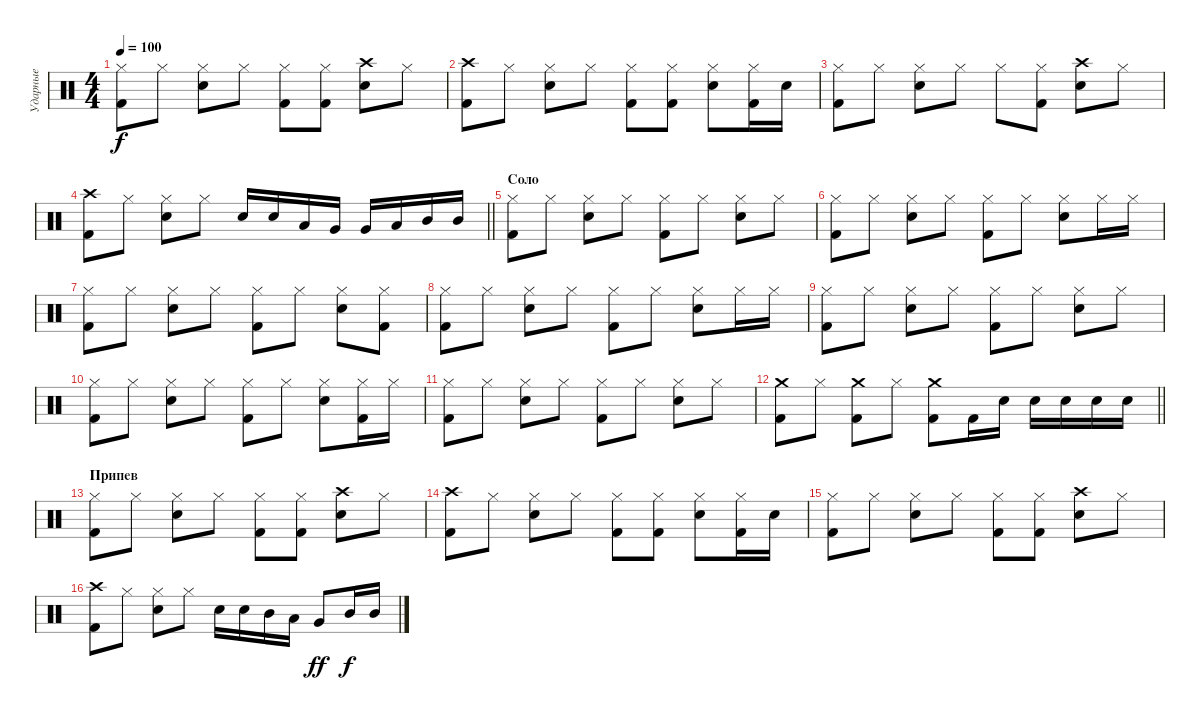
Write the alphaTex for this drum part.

\track ("Ударные" "Ударные") {instrument percussion}
\staff {score}
\articulation defaults
\ts (4 4)
\tempo 100
\clef neutral
\ks c
("Hi-Hat (closed)" "Kick (hit) 2").8{dy f} "Hi-Hat (closed)".8 ("Hi-Hat (closed)" "Electric Snare (hit)").8 "Hi-Hat (closed)".8 ("Hi-Hat (closed)" "Kick (hit) 2").8 ("Hi-Hat (closed)" "Kick (hit) 2").8 ("Crash high (hit)" "Electric Snare (hit)").8 "Hi-Hat (closed)".8 |
("Crash high (hit)" "Kick (hit) 2").8 "Hi-Hat (closed)".8 ("Hi-Hat (closed)" "Electric Snare (hit)").8 "Hi-Hat (closed)".8 ("Hi-Hat (closed)" "Kick (hit) 2").8 ("Hi-Hat (closed)" "Kick (hit) 2").8 ("Hi-Hat (closed)" "Electric Snare (hit)").8 ("Hi-Hat (closed)" "Kick (hit) 2").16 "Electric Snare (hit)".16 |
("Hi-Hat (closed)" "Kick (hit) 2").8 "Hi-Hat (closed)".8 ("Hi-Hat (closed)" "Electric Snare (hit)").8 "Hi-Hat (closed)".8 "Hi-Hat (closed)".8 ("Hi-Hat (closed)" "Kick (hit) 2").8 ("Crash high (hit)" "Electric Snare (hit)").8 "Hi-Hat (closed)".8 |
\barLineRight lightlight
("Crash high (hit)" "Kick (hit) 2").8 "Hi-Hat (closed)".8 ("Hi-Hat (closed)" "Electric Snare (hit)").8 "Hi-Hat (closed)".8 "Electric Snare (hit)".16 "Electric Snare (hit)".16 "Low Floor Tom (hit)".16 "Very Low Tom (hit)".16 "Very Low Tom (hit)".16 "Low Tom (hit)".16 "Mid Tom (hit)".16 "Mid Tom (hit)".16 |
\section ("" "Соло")
("Hi-Hat (closed)" "Kick (hit) 2").8 "Hi-Hat (closed)".8 ("Hi-Hat (closed)" "Electric Snare (hit)").8 "Hi-Hat (closed)".8 ("Hi-Hat (closed)" "Kick (hit) 2").8 "Hi-Hat (closed)".8 ("Hi-Hat (closed)" "Electric Snare (hit)").8 "Hi-Hat (closed)".8 |
("Hi-Hat (closed)" "Kick (hit) 2").8 "Hi-Hat (closed)".8 ("Hi-Hat (closed)" "Electric Snare (hit)").8 "Hi-Hat (closed)".8 ("Hi-Hat (closed)" "Kick (hit) 2").8 "Hi-Hat (closed)".8 ("Hi-Hat (closed)" "Electric Snare (hit)").8 "Hi-Hat (closed)".16 "Hi-Hat (closed)".16 |
("Hi-Hat (closed)" "Kick (hit) 2").8 "Hi-Hat (closed)".8 ("Hi-Hat (closed)" "Electric Snare (hit)").8 "Hi-Hat (closed)".8 ("Hi-Hat (closed)" "Kick (hit) 2").8 "Hi-Hat (closed)".8 ("Hi-Hat (closed)" "Electric Snare (hit)").8 ("Hi-Hat (closed)" "Kick (hit) 2").8 |
("Hi-Hat (closed)" "Kick (hit) 2").8 "Hi-Hat (closed)".8 ("Hi-Hat (closed)" "Electric Snare (hit)").8 "Hi-Hat (closed)".8 ("Hi-Hat (closed)" "Kick (hit) 2").8 "Hi-Hat (closed)".8 ("Hi-Hat (closed)" "Electric Snare (hit)").8 "Hi-Hat (closed)".16 "Hi-Hat (closed)".16 |
("Hi-Hat (closed)" "Kick (hit) 2").8 "Hi-Hat (closed)".8 ("Hi-Hat (closed)" "Electric Snare (hit)").8 "Hi-Hat (closed)".8 ("Hi-Hat (closed)" "Kick (hit) 2").8 "Hi-Hat (closed)".8 ("Hi-Hat (closed)" "Electric Snare (hit)").8 "Hi-Hat (closed)".8 |
("Hi-Hat (closed)" "Kick (hit) 2").8 "Hi-Hat (closed)".8 ("Hi-Hat (closed)" "Electric Snare (hit)").8 "Hi-Hat (closed)".8 ("Hi-Hat (closed)" "Kick (hit) 2").8 "Hi-Hat (closed)".8 ("Hi-Hat (closed)" "Electric Snare (hit)").8 ("Hi-Hat (closed)" "Kick (hit) 2").16 "Hi-Hat (closed)".16 |
("Hi-Hat (closed)" "Kick (hit) 2").8 "Hi-Hat (closed)".8 ("Hi-Hat (closed)" "Electric Snare (hit)").8 "Hi-Hat (closed)".8 ("Hi-Hat (closed)" "Kick (hit) 2").8 "Hi-Hat (closed)".8 ("Hi-Hat (closed)" "Electric Snare (hit)").8 "Hi-Hat (closed)".8 |
\barLineRight lightlight
("Crash medium (hit)" "Kick (hit) 2").8 "Hi-Hat (closed)".8 ("Crash medium (hit)" "Kick (hit) 2").8 "Hi-Hat (closed)".8 ("Crash medium (hit)" "Kick (hit) 2").8 "Kick (hit) 2".16 "Electric Snare (hit)".16 "Electric Snare (hit)".16 "Electric Snare (hit)".16 "Electric Snare (hit)".16 "Electric Snare (hit)".16 |
\section ("" "Припев")
("Hi-Hat (closed)" "Kick (hit) 2").8 "Hi-Hat (closed)".8 ("Hi-Hat (closed)" "Electric Snare (hit)").8 "Hi-Hat (closed)".8 ("Hi-Hat (closed)" "Kick (hit) 2").8 ("Hi-Hat (closed)" "Kick (hit) 2").8 ("Crash high (hit)" "Electric Snare (hit)").8 "Hi-Hat (closed)".8 |
("Crash high (hit)" "Kick (hit) 2").8 "Hi-Hat (closed)".8 ("Hi-Hat (closed)" "Electric Snare (hit)").8 "Hi-Hat (closed)".8 ("Hi-Hat (closed)" "Kick (hit) 2").8 ("Hi-Hat (closed)" "Kick (hit) 2").8 ("Hi-Hat (closed)" "Electric Snare (hit)").8 ("Hi-Hat (closed)" "Kick (hit) 2").16 "Electric Snare (hit)".16 |
("Hi-Hat (closed)" "Kick (hit) 2").8 "Hi-Hat (closed)".8 ("Hi-Hat (closed)" "Electric Snare (hit)").8 "Hi-Hat (closed)".8 ("Hi-Hat (closed)" "Kick (hit) 2").8 ("Hi-Hat (closed)" "Kick (hit) 2").8 ("Crash high (hit)" "Electric Snare (hit)").8 "Hi-Hat (closed)".8 |
("Crash high (hit)" "Kick (hit) 2").8 "Hi-Hat (closed)".8 ("Hi-Hat (closed)" "Electric Snare (hit)").8 "Hi-Hat (closed)".8 "Electric Snare (hit)".16 "Electric Snare (hit)".16 "Mid Tom (hit)".16 "Low Tom (hit)".16 "Very Low Tom (hit)".8{dy ff} "Mid Tom (hit)".16{dy f} "Mid Tom (hit)".16
